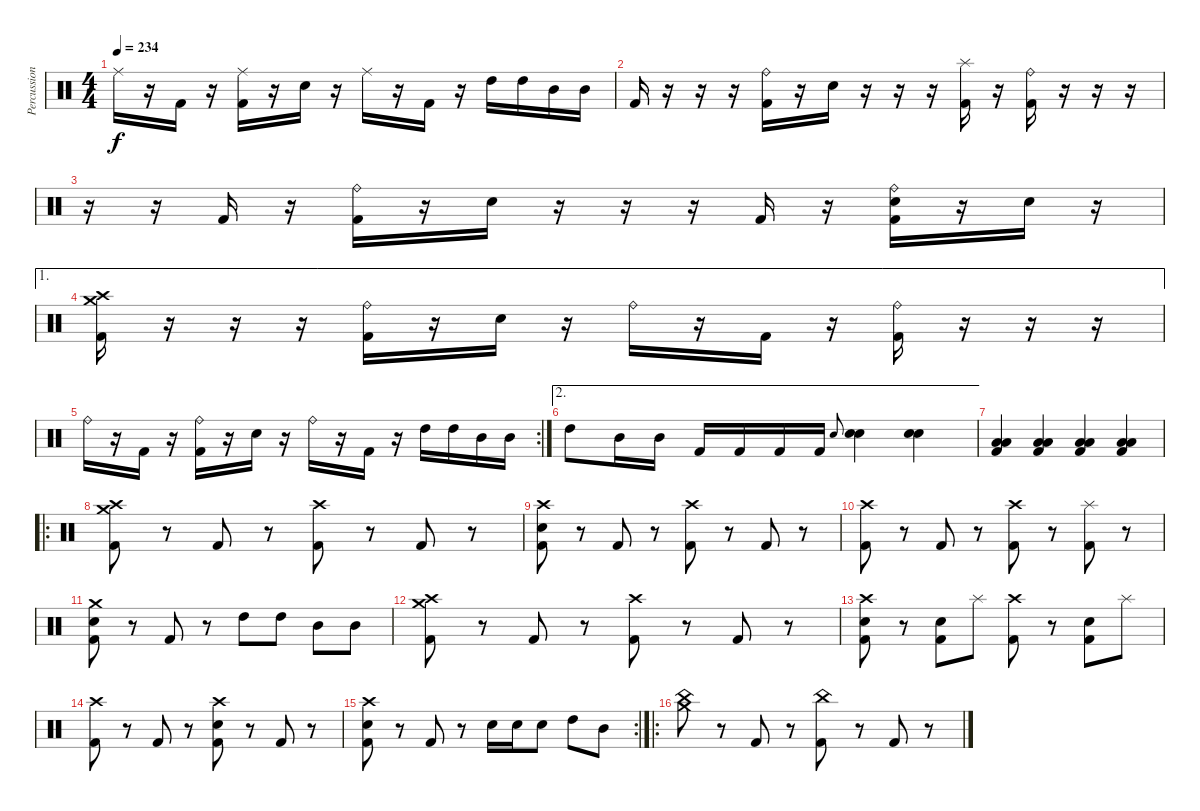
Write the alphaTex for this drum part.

\track ("Percussion" "Percussion") {instrument percussion}
\staff {score}
\articulation defaults
\ts (4 4)
\tempo 234
\clef neutral
\ks c "Ride (middle)".16{dy f}
r.16 "Kick (hit) 2".16 r.16 ("Ride (middle)" "Kick (hit) 2").16 r.16 "Electric Snare (hit)".16 r.16 "Ride (middle)".16 r.16 "Kick (hit) 2".16 r.16 "High Tom (hit)".16 "High Tom (hit)".16 "Mid Tom (hit)".16 "Mid Tom (hit)".16 |
"Kick (hit) 2".16 r.16 r.16 r.16 ("Ride (bell)" "Kick (hit) 2").16 r.16 "Electric Snare (hit)".16 r.16 r.16 r.16 ("Splash (hit)" "Kick (hit) 2").16 r.16 ("Ride (bell)" "Kick (hit) 2").16 r.16 r.16 r.16 |
r.16 r.16 "Kick (hit) 2".16 r.16 ("Ride (bell)" "Kick (hit) 2").16 r.16 "Electric Snare (hit)".16 r.16 r.16 r.16 "Kick (hit) 2".16 r.16 ("Ride (bell)" "Electric Snare (hit)" "Kick (hit) 2").16 r.16 "Electric Snare (hit)".16 r.16 |
\ae 1
("Crash medium (hit)" "Crash high (hit)" "Kick (hit) 2").16 r.16 r.16 r.16 ("Ride (bell)" "Kick (hit) 2").16 r.16 "Electric Snare (hit)".16 r.16 "Ride (bell)".16 r.16 "Kick (hit) 2".16 r.16 ("Ride (bell)" "Kick (hit) 2").16 r.16 r.16 r.16 |
\rc 2 "Ride (bell)".16
r.16 "Kick (hit) 2".16 r.16 ("Ride (bell)" "Kick (hit) 2").16 r.16 "Electric Snare (hit)".16 r.16 "Ride (bell)".16 r.16 "Kick (hit) 2".16 r.16 "High Tom (hit)".16 "High Tom (hit)".16 "Mid Tom (hit)".16 "Mid Tom (hit)".16 |
\ae 2 "High Tom (hit)".8 "Mid Tom (hit)".16 "Mid Tom (hit)".16 "Kick (hit) 2".16 "Kick (hit) 2".16 "Kick (hit) 2".16 "Kick (hit) 2".16 "Electric Snare (hit)"{sl}.8{gr onbeat}
("Electric Snare (hit)" "Electric Snare (hit)").4 ("Electric Snare (hit)" "Electric Snare (hit)").4 |
("Low Floor Tom (hit)" "Low Floor Tom (hit)" "Kick (hit) 2").4 ("Low Floor Tom (hit)" "Low Floor Tom (hit)" "Kick (hit) 2").4 ("Low Floor Tom (hit)" "Low Floor Tom (hit)" "Kick (hit) 2").4 ("Low Floor Tom (hit)" "Low Floor Tom (hit)" "Kick (hit) 2").4 |
\ro
("Crash medium (hit)" "Crash high (hit)" "Kick (hit) 2").8 r.8 "Kick (hit) 2".8 r.8 ("Crash high (hit)" "Kick (hit) 2").8 r.8 "Kick (hit) 2".8 r.8 |
("Crash high (hit)" "Electric Snare (hit)" "Kick (hit) 2").8 r.8 "Kick (hit) 2".8 r.8 ("Crash high (hit)" "Kick (hit) 2").8 r.8 "Kick (hit) 2".8 r.8 |
("Crash high (hit)" "Kick (hit) 2").8 r.8 "Kick (hit) 2".8 r.8 ("Crash high (hit)" "Kick (hit) 2").8 r.8 ("Splash (hit)" "Kick (hit) 2").8 r.8 |
("Crash medium (hit)" "Electric Snare (hit)" "Kick (hit) 2").8 r.8 "Kick (hit) 2".8 r.8 "High Tom (hit)".8 "High Tom (hit)".8 "Mid Tom (hit)".8 "Mid Tom (hit)".8 |
("Crash medium (hit)" "Crash high (hit)" "Kick (hit) 2").8 r.8 "Kick (hit) 2".8 r.8 ("Crash high (hit)" "Kick (hit) 2").8 r.8 "Kick (hit) 2".8 r.8 |
("Crash high (hit)" "Electric Snare (hit)" "Kick (hit) 2").8 r.8 ("Electric Snare (hit)" "Kick (hit) 2").8 "Splash (hit)".8 ("Crash high (hit)" "Kick (hit) 2").8 r.8 ("Electric Snare (hit)" "Kick (hit) 2").8 "Splash (hit)".8 |
("Crash high (hit)" "Kick (hit) 2").8 r.8 "Kick (hit) 2".8 r.8 ("Crash high (hit)" "Electric Snare (hit)" "Kick (hit) 2").8 r.8 "Kick (hit) 2".8 r.8 |
\rc 2
("Crash high (hit)" "Electric Snare (hit)" "Kick (hit) 2").8 r.8 "Kick (hit) 2".8 r.8 "Electric Snare (hit)".16 "Electric Snare (hit)".16 "Electric Snare (hit)".8 "High Tom (hit)".8 "Mid Tom (hit)".8 |
\ro
("Crash medium (hit)" "China (hit)").8 r.8 "Kick (hit) 2".8 r.8 ("China (hit)" "Kick (hit) 2").8 r.8 "Kick (hit) 2".8 r.8
